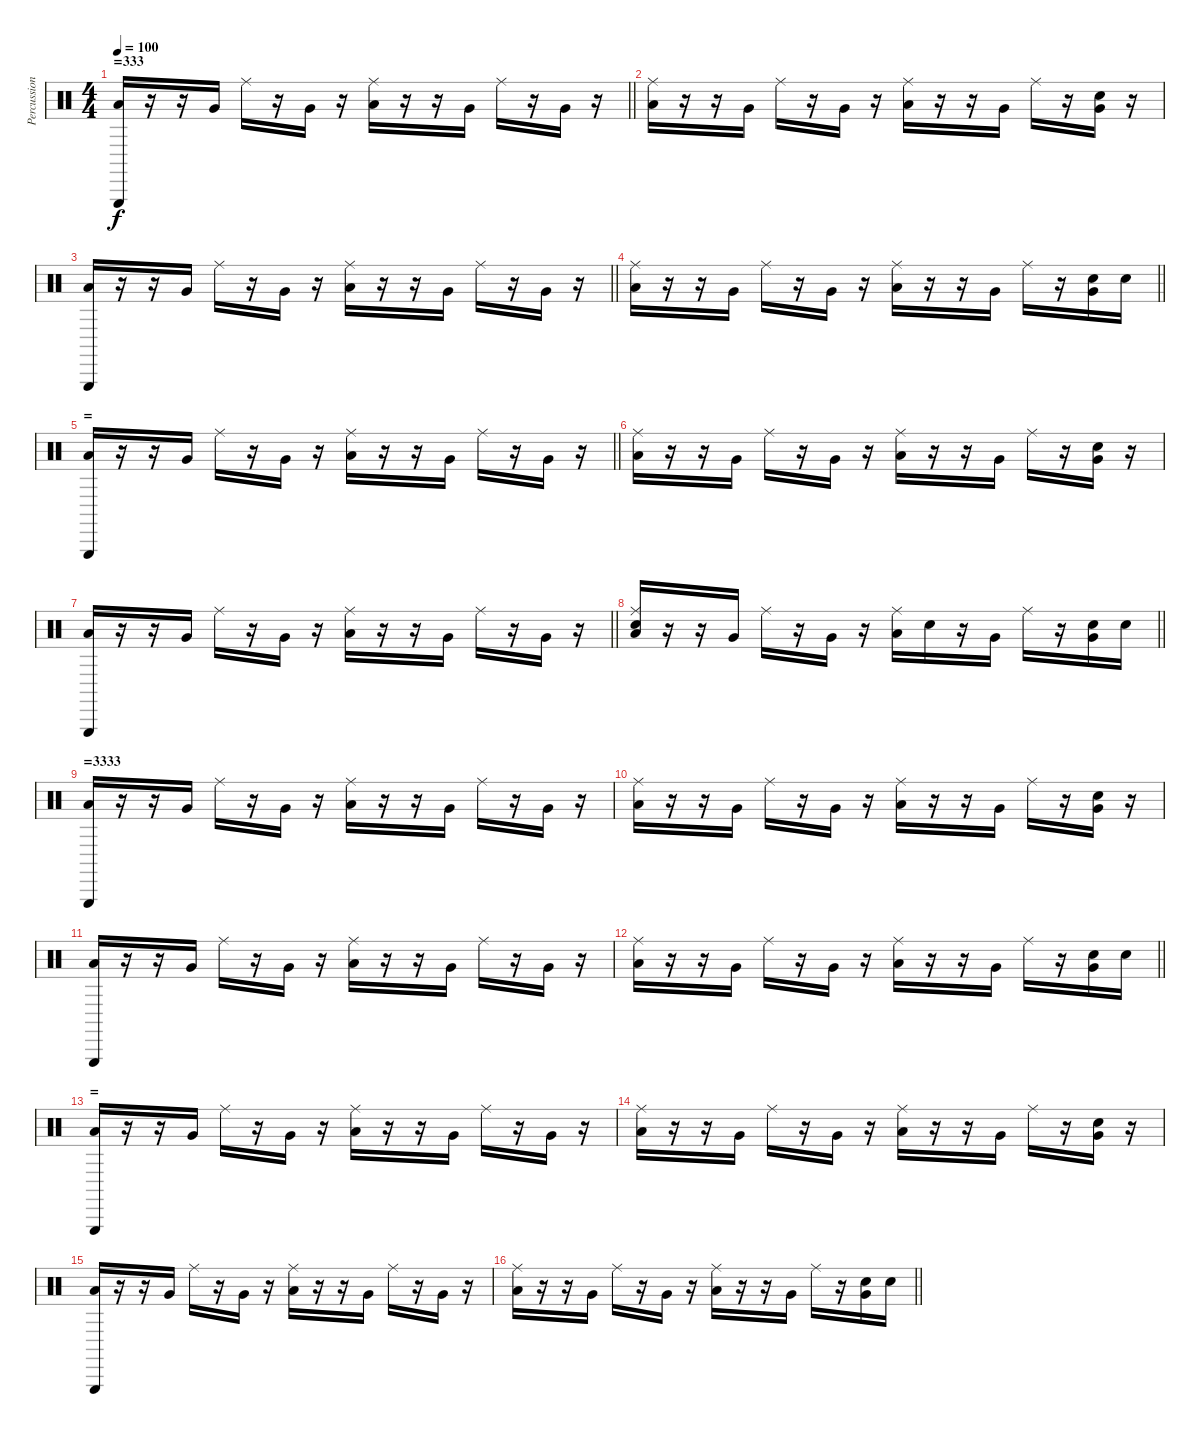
\track ("Percussion" "Percussion") {instrument percussion}
\staff {score}
\articulation defaults
\ts (4 4)
\section ("" "=333")
\tempo 100
\clef neutral
\barLineRight lightlight
\ks c
("Low Floor Tom (hit)" "Triangle (hit)").16{dy f} r.16 r.16 "Very Low Tom (hit)".16 "Ride (middle)".16 r.16 "Very Low Tom (hit)".16 r.16 ("Low Floor Tom (hit)" "Ride (middle)").16 r.16 r.16 "Very Low Tom (hit)".16 "Ride (middle)".16 r.16 "Very Low Tom (hit)".16 r.16 |
("Low Floor Tom (hit)" "Ride (middle)").16 r.16 r.16 "Very Low Tom (hit)".16 "Ride (middle)".16 r.16 "Very Low Tom (hit)".16 r.16 ("Low Floor Tom (hit)" "Ride (middle)").16 r.16 r.16 "Very Low Tom (hit)".16 "Ride (middle)".16 r.16 ("Very Low Tom (hit)" "Electric Snare (hit)").16 r.16 |
\barLineRight lightlight
("Low Floor Tom (hit)" "Triangle (hit)").16 r.16 r.16 "Very Low Tom (hit)".16 "Ride (middle)".16 r.16 "Very Low Tom (hit)".16 r.16 ("Low Floor Tom (hit)" "Ride (middle)").16 r.16 r.16 "Very Low Tom (hit)".16 "Ride (middle)".16 r.16 "Very Low Tom (hit)".16 r.16 |
\barLineRight lightlight
("Low Floor Tom (hit)" "Ride (middle)").16 r.16 r.16 "Very Low Tom (hit)".16 "Ride (middle)".16 r.16 "Very Low Tom (hit)".16 r.16 ("Low Floor Tom (hit)" "Ride (middle)").16 r.16 r.16 "Very Low Tom (hit)".16 "Ride (middle)".16 r.16 ("Very Low Tom (hit)" "Electric Snare (hit)").16 "Electric Snare (hit)".16 |
\section ("" "=")
\barLineRight lightlight
("Low Floor Tom (hit)" "Triangle (hit)").16 r.16 r.16 "Very Low Tom (hit)".16 "Ride (middle)".16 r.16 "Very Low Tom (hit)".16 r.16 ("Low Floor Tom (hit)" "Ride (middle)").16 r.16 r.16 "Very Low Tom (hit)".16 "Ride (middle)".16 r.16 "Very Low Tom (hit)".16 r.16 |
("Low Floor Tom (hit)" "Ride (middle)").16 r.16 r.16 "Very Low Tom (hit)".16 "Ride (middle)".16 r.16 "Very Low Tom (hit)".16 r.16 ("Low Floor Tom (hit)" "Ride (middle)").16 r.16 r.16 "Very Low Tom (hit)".16 "Ride (middle)".16 r.16 ("Very Low Tom (hit)" "Electric Snare (hit)").16 r.16 |
\barLineRight lightlight
("Low Floor Tom (hit)" "Triangle (hit)").16 r.16 r.16 "Very Low Tom (hit)".16 "Ride (middle)".16 r.16 "Very Low Tom (hit)".16 r.16 ("Low Floor Tom (hit)" "Ride (middle)").16 r.16 r.16 "Very Low Tom (hit)".16 "Ride (middle)".16 r.16 "Very Low Tom (hit)".16 r.16 |
\barLineRight lightlight
("Low Floor Tom (hit)" "Electric Snare (hit)" "Ride (middle)").16 r.16 r.16 "Very Low Tom (hit)".16 "Ride (middle)".16 r.16 "Very Low Tom (hit)".16 r.16 ("Low Floor Tom (hit)" "Ride (middle)").16 "Electric Snare (hit)".16 r.16 "Very Low Tom (hit)".16 "Ride (middle)".16 r.16 ("Very Low Tom (hit)" "Electric Snare (hit)").16 "Electric Snare (hit)".16 |
\section ("" "=3333")
("Low Floor Tom (hit)" "Triangle (hit)").16 r.16 r.16 "Very Low Tom (hit)".16 "Ride (middle)".16 r.16 "Very Low Tom (hit)".16 r.16 ("Low Floor Tom (hit)" "Ride (middle)").16 r.16 r.16 "Very Low Tom (hit)".16 "Ride (middle)".16 r.16 "Very Low Tom (hit)".16 r.16 |
("Low Floor Tom (hit)" "Ride (middle)").16 r.16 r.16 "Very Low Tom (hit)".16 "Ride (middle)".16 r.16 "Very Low Tom (hit)".16 r.16 ("Low Floor Tom (hit)" "Ride (middle)").16 r.16 r.16 "Very Low Tom (hit)".16 "Ride (middle)".16 r.16 ("Very Low Tom (hit)" "Electric Snare (hit)").16 r.16 |
("Low Floor Tom (hit)" "Triangle (hit)").16 r.16 r.16 "Very Low Tom (hit)".16 "Ride (middle)".16 r.16 "Very Low Tom (hit)".16 r.16 ("Low Floor Tom (hit)" "Ride (middle)").16 r.16 r.16 "Very Low Tom (hit)".16 "Ride (middle)".16 r.16 "Very Low Tom (hit)".16 r.16 |
\barLineRight lightlight
("Low Floor Tom (hit)" "Ride (middle)").16 r.16 r.16 "Very Low Tom (hit)".16 "Ride (middle)".16 r.16 "Very Low Tom (hit)".16 r.16 ("Low Floor Tom (hit)" "Ride (middle)").16 r.16 r.16 "Very Low Tom (hit)".16 "Ride (middle)".16 r.16 ("Very Low Tom (hit)" "Electric Snare (hit)").16 "Electric Snare (hit)".16 |
\section ("" "=")
("Low Floor Tom (hit)" "Triangle (hit)").16 r.16 r.16 "Very Low Tom (hit)".16 "Ride (middle)".16 r.16 "Very Low Tom (hit)".16 r.16 ("Low Floor Tom (hit)" "Ride (middle)").16 r.16 r.16 "Very Low Tom (hit)".16 "Ride (middle)".16 r.16 "Very Low Tom (hit)".16 r.16 |
("Low Floor Tom (hit)" "Ride (middle)").16 r.16 r.16 "Very Low Tom (hit)".16 "Ride (middle)".16 r.16 "Very Low Tom (hit)".16 r.16 ("Low Floor Tom (hit)" "Ride (middle)").16 r.16 r.16 "Very Low Tom (hit)".16 "Ride (middle)".16 r.16 ("Very Low Tom (hit)" "Electric Snare (hit)").16 r.16 |
("Low Floor Tom (hit)" "Triangle (hit)").16 r.16 r.16 "Very Low Tom (hit)".16 "Ride (middle)".16 r.16 "Very Low Tom (hit)".16 r.16 ("Low Floor Tom (hit)" "Ride (middle)").16 r.16 r.16 "Very Low Tom (hit)".16 "Ride (middle)".16 r.16 "Very Low Tom (hit)".16 r.16 |
\barLineRight lightlight
("Low Floor Tom (hit)" "Ride (middle)").16 r.16 r.16 "Very Low Tom (hit)".16 "Ride (middle)".16 r.16 "Very Low Tom (hit)".16 r.16 ("Low Floor Tom (hit)" "Ride (middle)").16 r.16 r.16 "Very Low Tom (hit)".16 "Ride (middle)".16 r.16 ("Very Low Tom (hit)" "Electric Snare (hit)").16 "Electric Snare (hit)".16
